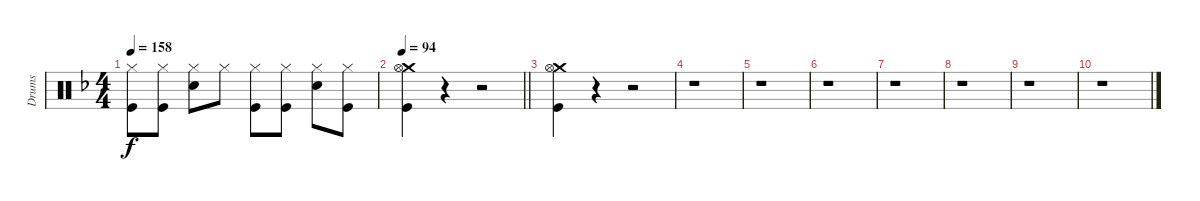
\track ("Drums" "Drums") {instrument percussion}
\staff {score}
\articulation defaults
\ts (4 4)
\tempo 158
\clef neutral
\ks f
("Hi-Hat (closed)" "Kick (hit)").8{dy f} ("Hi-Hat (closed)" "Kick (hit)").8 ("Hi-Hat (closed)" "Snare (hit) 2").8 "Hi-Hat (closed)".8 ("Hi-Hat (closed)" "Kick (hit)").8 ("Hi-Hat (closed)" "Kick (hit)").8 ("Hi-Hat (closed)" "Snare (hit) 2").8 ("Hi-Hat (closed)" "Kick (hit)").8 |
\tempo 94
\barLineRight lightlight
("Crash medium (hit)" "Hi-Hat (open)" "Kick (hit)").4 r.4 r.2 |
\section ("" "")
("Crash medium (hit)" "Hi-Hat (open)" "Kick (hit)").4 r.4 r.2 |
r.1 |
r.1 |
r.1 |
r.1 |
r.1 |
r.1 |
r.1
